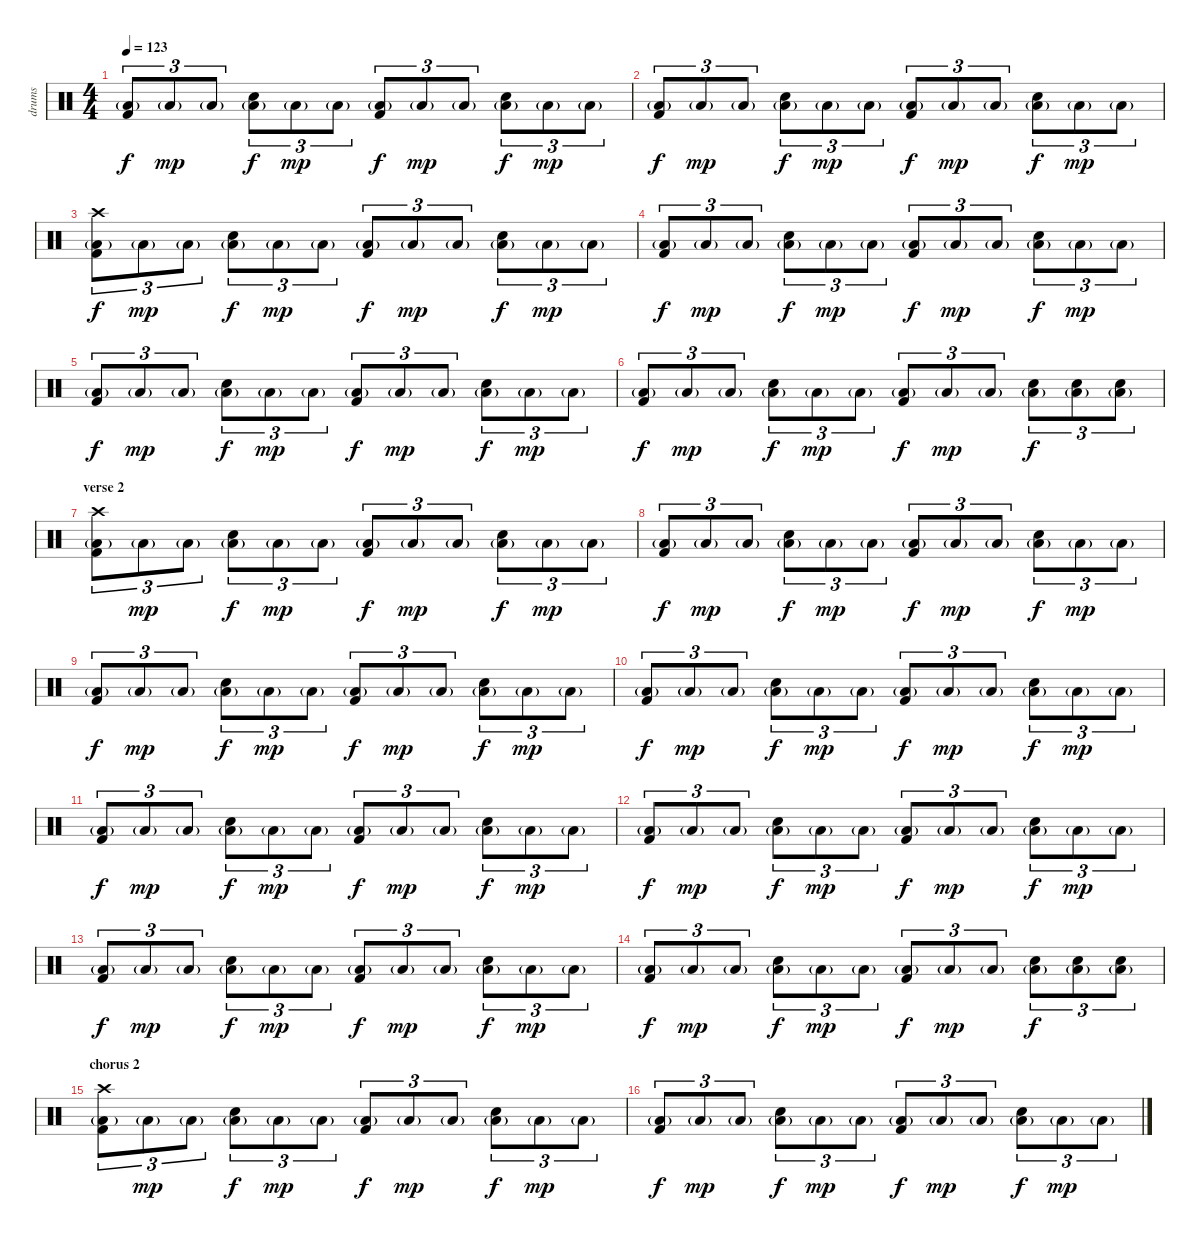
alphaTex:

\track ("drums" "drums") {instrument percussion}
\staff {score}
\articulation defaults
\ts (4 4)
\tempo 123
\clef neutral
\ks c
("Low Floor Tom (hit)"{g} "Kick (hit) 2").8{tu (3 2) txt "" dy f} "Low Floor Tom (hit)"{g}.8{tu (3 2) txt "" dy mp} "Low Floor Tom (hit)"{g}.8{tu (3 2) txt ""} ("Low Floor Tom (hit)"{g} "Electric Snare (hit)").8{tu (3 2) txt "" dy f} "Low Floor Tom (hit)"{g}.8{tu (3 2) txt "" dy mp} "Low Floor Tom (hit)"{g}.8{tu (3 2) txt ""} ("Low Floor Tom (hit)"{g} "Kick (hit) 2").8{tu (3 2) txt "" dy f} "Low Floor Tom (hit)"{g}.8{tu (3 2) txt "" dy mp} "Low Floor Tom (hit)"{g}.8{tu (3 2) txt ""} ("Low Floor Tom (hit)"{g} "Electric Snare (hit)").8{tu (3 2) txt "" dy f} "Low Floor Tom (hit)"{g}.8{tu (3 2) txt "" dy mp} "Low Floor Tom (hit)"{g}.8{tu (3 2) txt ""} |
("Low Floor Tom (hit)"{g} "Kick (hit) 2").8{tu (3 2) txt "" dy f} "Low Floor Tom (hit)"{g}.8{tu (3 2) txt "" dy mp} "Low Floor Tom (hit)"{g}.8{tu (3 2) txt ""} ("Low Floor Tom (hit)"{g} "Electric Snare (hit)").8{tu (3 2) txt "" dy f} "Low Floor Tom (hit)"{g}.8{tu (3 2) txt "" dy mp} "Low Floor Tom (hit)"{g}.8{tu (3 2) txt ""} ("Low Floor Tom (hit)"{g} "Kick (hit) 2").8{tu (3 2) txt "" dy f} "Low Floor Tom (hit)"{g}.8{tu (3 2) txt "" dy mp} "Low Floor Tom (hit)"{g}.8{tu (3 2) txt ""} ("Low Floor Tom (hit)"{g} "Electric Snare (hit)").8{tu (3 2) txt "" dy f} "Low Floor Tom (hit)"{g}.8{tu (3 2) txt "" dy mp} "Low Floor Tom (hit)"{g}.8{tu (3 2) txt ""} |
("Low Floor Tom (hit)"{g} "Kick (hit) 2" "Crash high (hit)").8{tu (3 2) txt "" dy f} "Low Floor Tom (hit)"{g}.8{tu (3 2) txt "" dy mp} "Low Floor Tom (hit)"{g}.8{tu (3 2) txt ""} ("Low Floor Tom (hit)"{g} "Electric Snare (hit)").8{tu (3 2) txt "" dy f} "Low Floor Tom (hit)"{g}.8{tu (3 2) txt "" dy mp} "Low Floor Tom (hit)"{g}.8{tu (3 2) txt ""} ("Low Floor Tom (hit)"{g} "Kick (hit) 2").8{tu (3 2) txt "" dy f} "Low Floor Tom (hit)"{g}.8{tu (3 2) txt "" dy mp} "Low Floor Tom (hit)"{g}.8{tu (3 2) txt ""} ("Low Floor Tom (hit)"{g} "Electric Snare (hit)").8{tu (3 2) txt "" dy f} "Low Floor Tom (hit)"{g}.8{tu (3 2) txt "" dy mp} "Low Floor Tom (hit)"{g}.8{tu (3 2) txt ""} |
("Low Floor Tom (hit)"{g} "Kick (hit) 2").8{tu (3 2) txt "" dy f} "Low Floor Tom (hit)"{g}.8{tu (3 2) txt "" dy mp} "Low Floor Tom (hit)"{g}.8{tu (3 2) txt ""} ("Low Floor Tom (hit)"{g} "Electric Snare (hit)").8{tu (3 2) txt "" dy f} "Low Floor Tom (hit)"{g}.8{tu (3 2) txt "" dy mp} "Low Floor Tom (hit)"{g}.8{tu (3 2) txt ""} ("Low Floor Tom (hit)"{g} "Kick (hit) 2").8{tu (3 2) txt "" dy f} "Low Floor Tom (hit)"{g}.8{tu (3 2) txt "" dy mp} "Low Floor Tom (hit)"{g}.8{tu (3 2) txt ""} ("Low Floor Tom (hit)"{g} "Electric Snare (hit)").8{tu (3 2) txt "" dy f} "Low Floor Tom (hit)"{g}.8{tu (3 2) txt "" dy mp} "Low Floor Tom (hit)"{g}.8{tu (3 2) txt ""} |
("Low Floor Tom (hit)"{g} "Kick (hit) 2").8{tu (3 2) txt "" dy f} "Low Floor Tom (hit)"{g}.8{tu (3 2) txt "" dy mp} "Low Floor Tom (hit)"{g}.8{tu (3 2) txt ""} ("Low Floor Tom (hit)"{g} "Electric Snare (hit)").8{tu (3 2) txt "" dy f} "Low Floor Tom (hit)"{g}.8{tu (3 2) txt "" dy mp} "Low Floor Tom (hit)"{g}.8{tu (3 2) txt ""} ("Low Floor Tom (hit)"{g} "Kick (hit) 2").8{tu (3 2) txt "" dy f} "Low Floor Tom (hit)"{g}.8{tu (3 2) txt "" dy mp} "Low Floor Tom (hit)"{g}.8{tu (3 2) txt ""} ("Low Floor Tom (hit)"{g} "Electric Snare (hit)").8{tu (3 2) txt "" dy f} "Low Floor Tom (hit)"{g}.8{tu (3 2) txt "" dy mp} "Low Floor Tom (hit)"{g}.8{tu (3 2) txt ""} |
("Low Floor Tom (hit)"{g} "Kick (hit) 2").8{tu (3 2) txt "" dy f} "Low Floor Tom (hit)"{g}.8{tu (3 2) txt "" dy mp} "Low Floor Tom (hit)"{g}.8{tu (3 2) txt ""} ("Low Floor Tom (hit)"{g} "Electric Snare (hit)").8{tu (3 2) txt "" dy f} "Low Floor Tom (hit)"{g}.8{tu (3 2) txt "" dy mp} "Low Floor Tom (hit)"{g}.8{tu (3 2) txt ""} ("Low Floor Tom (hit)"{g} "Kick (hit) 2").8{tu (3 2) txt "" dy f} "Low Floor Tom (hit)"{g}.8{tu (3 2) txt "" dy mp} "Low Floor Tom (hit)"{g}.8{tu (3 2) txt ""} ("Low Floor Tom (hit)"{g} "Electric Snare (hit)").8{tu (3 2) txt "" dy f} ("Low Floor Tom (hit)"{g} "Electric Snare (hit)").8{tu (3 2) txt ""} ("Low Floor Tom (hit)"{g} "Electric Snare (hit)").8{tu (3 2) txt ""} |
\section ("" "verse 2")
("Low Floor Tom (hit)"{g} "Kick (hit) 2" "Crash high (hit)").8{tu (3 2) txt ""} "Low Floor Tom (hit)"{g}.8{tu (3 2) txt "" dy mp} "Low Floor Tom (hit)"{g}.8{tu (3 2) txt ""} ("Low Floor Tom (hit)"{g} "Electric Snare (hit)").8{tu (3 2) txt "" dy f} "Low Floor Tom (hit)"{g}.8{tu (3 2) txt "" dy mp} "Low Floor Tom (hit)"{g}.8{tu (3 2) txt ""} ("Low Floor Tom (hit)"{g} "Kick (hit) 2").8{tu (3 2) txt "" dy f} "Low Floor Tom (hit)"{g}.8{tu (3 2) txt "" dy mp} "Low Floor Tom (hit)"{g}.8{tu (3 2) txt ""} ("Low Floor Tom (hit)"{g} "Electric Snare (hit)").8{tu (3 2) txt "" dy f} "Low Floor Tom (hit)"{g}.8{tu (3 2) txt "" dy mp} "Low Floor Tom (hit)"{g}.8{tu (3 2) txt ""} |
("Low Floor Tom (hit)"{g} "Kick (hit) 2").8{tu (3 2) txt "" dy f} "Low Floor Tom (hit)"{g}.8{tu (3 2) txt "" dy mp} "Low Floor Tom (hit)"{g}.8{tu (3 2) txt ""} ("Low Floor Tom (hit)"{g} "Electric Snare (hit)").8{tu (3 2) txt "" dy f} "Low Floor Tom (hit)"{g}.8{tu (3 2) txt "" dy mp} "Low Floor Tom (hit)"{g}.8{tu (3 2) txt ""} ("Low Floor Tom (hit)"{g} "Kick (hit) 2").8{tu (3 2) txt "" dy f} "Low Floor Tom (hit)"{g}.8{tu (3 2) txt "" dy mp} "Low Floor Tom (hit)"{g}.8{tu (3 2) txt ""} ("Low Floor Tom (hit)"{g} "Electric Snare (hit)").8{tu (3 2) txt "" dy f} "Low Floor Tom (hit)"{g}.8{tu (3 2) txt "" dy mp} "Low Floor Tom (hit)"{g}.8{tu (3 2) txt ""} |
("Low Floor Tom (hit)"{g} "Kick (hit) 2").8{tu (3 2) txt "" dy f} "Low Floor Tom (hit)"{g}.8{tu (3 2) txt "" dy mp} "Low Floor Tom (hit)"{g}.8{tu (3 2) txt ""} ("Low Floor Tom (hit)"{g} "Electric Snare (hit)").8{tu (3 2) txt "" dy f} "Low Floor Tom (hit)"{g}.8{tu (3 2) txt "" dy mp} "Low Floor Tom (hit)"{g}.8{tu (3 2) txt ""} ("Low Floor Tom (hit)"{g} "Kick (hit) 2").8{tu (3 2) txt "" dy f} "Low Floor Tom (hit)"{g}.8{tu (3 2) txt "" dy mp} "Low Floor Tom (hit)"{g}.8{tu (3 2) txt ""} ("Low Floor Tom (hit)"{g} "Electric Snare (hit)").8{tu (3 2) txt "" dy f} "Low Floor Tom (hit)"{g}.8{tu (3 2) txt "" dy mp} "Low Floor Tom (hit)"{g}.8{tu (3 2) txt ""} |
("Low Floor Tom (hit)"{g} "Kick (hit) 2").8{tu (3 2) txt "" dy f} "Low Floor Tom (hit)"{g}.8{tu (3 2) txt "" dy mp} "Low Floor Tom (hit)"{g}.8{tu (3 2) txt ""} ("Low Floor Tom (hit)"{g} "Electric Snare (hit)").8{tu (3 2) txt "" dy f} "Low Floor Tom (hit)"{g}.8{tu (3 2) txt "" dy mp} "Low Floor Tom (hit)"{g}.8{tu (3 2) txt ""} ("Low Floor Tom (hit)"{g} "Kick (hit) 2").8{tu (3 2) txt "" dy f} "Low Floor Tom (hit)"{g}.8{tu (3 2) txt "" dy mp} "Low Floor Tom (hit)"{g}.8{tu (3 2) txt ""} ("Low Floor Tom (hit)"{g} "Electric Snare (hit)").8{tu (3 2) txt "" dy f} "Low Floor Tom (hit)"{g}.8{tu (3 2) txt "" dy mp} "Low Floor Tom (hit)"{g}.8{tu (3 2) txt ""} |
("Low Floor Tom (hit)"{g} "Kick (hit) 2").8{tu (3 2) txt "" dy f} "Low Floor Tom (hit)"{g}.8{tu (3 2) txt "" dy mp} "Low Floor Tom (hit)"{g}.8{tu (3 2) txt ""} ("Low Floor Tom (hit)"{g} "Electric Snare (hit)").8{tu (3 2) txt "" dy f} "Low Floor Tom (hit)"{g}.8{tu (3 2) txt "" dy mp} "Low Floor Tom (hit)"{g}.8{tu (3 2) txt ""} ("Low Floor Tom (hit)"{g} "Kick (hit) 2").8{tu (3 2) txt "" dy f} "Low Floor Tom (hit)"{g}.8{tu (3 2) txt "" dy mp} "Low Floor Tom (hit)"{g}.8{tu (3 2) txt ""} ("Low Floor Tom (hit)"{g} "Electric Snare (hit)").8{tu (3 2) txt "" dy f} "Low Floor Tom (hit)"{g}.8{tu (3 2) txt "" dy mp} "Low Floor Tom (hit)"{g}.8{tu (3 2) txt ""} |
("Low Floor Tom (hit)"{g} "Kick (hit) 2").8{tu (3 2) txt "" dy f} "Low Floor Tom (hit)"{g}.8{tu (3 2) txt "" dy mp} "Low Floor Tom (hit)"{g}.8{tu (3 2) txt ""} ("Low Floor Tom (hit)"{g} "Electric Snare (hit)").8{tu (3 2) txt "" dy f} "Low Floor Tom (hit)"{g}.8{tu (3 2) txt "" dy mp} "Low Floor Tom (hit)"{g}.8{tu (3 2) txt ""} ("Low Floor Tom (hit)"{g} "Kick (hit) 2").8{tu (3 2) txt "" dy f} "Low Floor Tom (hit)"{g}.8{tu (3 2) txt "" dy mp} "Low Floor Tom (hit)"{g}.8{tu (3 2) txt ""} ("Low Floor Tom (hit)"{g} "Electric Snare (hit)").8{tu (3 2) txt "" dy f} "Low Floor Tom (hit)"{g}.8{tu (3 2) txt "" dy mp} "Low Floor Tom (hit)"{g}.8{tu (3 2) txt ""} |
("Low Floor Tom (hit)"{g} "Kick (hit) 2").8{tu (3 2) txt "" dy f} "Low Floor Tom (hit)"{g}.8{tu (3 2) txt "" dy mp} "Low Floor Tom (hit)"{g}.8{tu (3 2) txt ""} ("Low Floor Tom (hit)"{g} "Electric Snare (hit)").8{tu (3 2) txt "" dy f} "Low Floor Tom (hit)"{g}.8{tu (3 2) txt "" dy mp} "Low Floor Tom (hit)"{g}.8{tu (3 2) txt ""} ("Low Floor Tom (hit)"{g} "Kick (hit) 2").8{tu (3 2) txt "" dy f} "Low Floor Tom (hit)"{g}.8{tu (3 2) txt "" dy mp} "Low Floor Tom (hit)"{g}.8{tu (3 2) txt ""} ("Low Floor Tom (hit)"{g} "Electric Snare (hit)").8{tu (3 2) txt "" dy f} "Low Floor Tom (hit)"{g}.8{tu (3 2) txt "" dy mp} "Low Floor Tom (hit)"{g}.8{tu (3 2) txt ""} |
("Low Floor Tom (hit)"{g} "Kick (hit) 2").8{tu (3 2) txt "" dy f} "Low Floor Tom (hit)"{g}.8{tu (3 2) txt "" dy mp} "Low Floor Tom (hit)"{g}.8{tu (3 2) txt ""} ("Low Floor Tom (hit)"{g} "Electric Snare (hit)").8{tu (3 2) txt "" dy f} "Low Floor Tom (hit)"{g}.8{tu (3 2) txt "" dy mp} "Low Floor Tom (hit)"{g}.8{tu (3 2) txt ""} ("Low Floor Tom (hit)"{g} "Kick (hit) 2").8{tu (3 2) txt "" dy f} "Low Floor Tom (hit)"{g}.8{tu (3 2) txt "" dy mp} "Low Floor Tom (hit)"{g}.8{tu (3 2) txt ""} ("Low Floor Tom (hit)"{g} "Electric Snare (hit)").8{tu (3 2) txt "" dy f} ("Low Floor Tom (hit)"{g} "Electric Snare (hit)").8{tu (3 2) txt ""} ("Low Floor Tom (hit)"{g} "Electric Snare (hit)").8{tu (3 2) txt ""} |
\section ("" "chorus 2")
("Low Floor Tom (hit)"{g} "Kick (hit) 2" "Crash high (hit)").8{tu (3 2) txt ""} "Low Floor Tom (hit)"{g}.8{tu (3 2) txt "" dy mp} "Low Floor Tom (hit)"{g}.8{tu (3 2) txt ""} ("Low Floor Tom (hit)"{g} "Electric Snare (hit)").8{tu (3 2) txt "" dy f} "Low Floor Tom (hit)"{g}.8{tu (3 2) txt "" dy mp} "Low Floor Tom (hit)"{g}.8{tu (3 2) txt ""} ("Low Floor Tom (hit)"{g} "Kick (hit) 2").8{tu (3 2) txt "" dy f} "Low Floor Tom (hit)"{g}.8{tu (3 2) txt "" dy mp} "Low Floor Tom (hit)"{g}.8{tu (3 2) txt ""} ("Low Floor Tom (hit)"{g} "Electric Snare (hit)").8{tu (3 2) txt "" dy f} "Low Floor Tom (hit)"{g}.8{tu (3 2) txt "" dy mp} "Low Floor Tom (hit)"{g}.8{tu (3 2) txt ""} |
("Low Floor Tom (hit)"{g} "Kick (hit) 2").8{tu (3 2) txt "" dy f} "Low Floor Tom (hit)"{g}.8{tu (3 2) txt "" dy mp} "Low Floor Tom (hit)"{g}.8{tu (3 2) txt ""} ("Low Floor Tom (hit)"{g} "Electric Snare (hit)").8{tu (3 2) txt "" dy f} "Low Floor Tom (hit)"{g}.8{tu (3 2) txt "" dy mp} "Low Floor Tom (hit)"{g}.8{tu (3 2) txt ""} ("Low Floor Tom (hit)"{g} "Kick (hit) 2").8{tu (3 2) txt "" dy f} "Low Floor Tom (hit)"{g}.8{tu (3 2) txt "" dy mp} "Low Floor Tom (hit)"{g}.8{tu (3 2) txt ""} ("Low Floor Tom (hit)"{g} "Electric Snare (hit)").8{tu (3 2) txt "" dy f} "Low Floor Tom (hit)"{g}.8{tu (3 2) txt "" dy mp} "Low Floor Tom (hit)"{g}.8{tu (3 2) txt ""}
